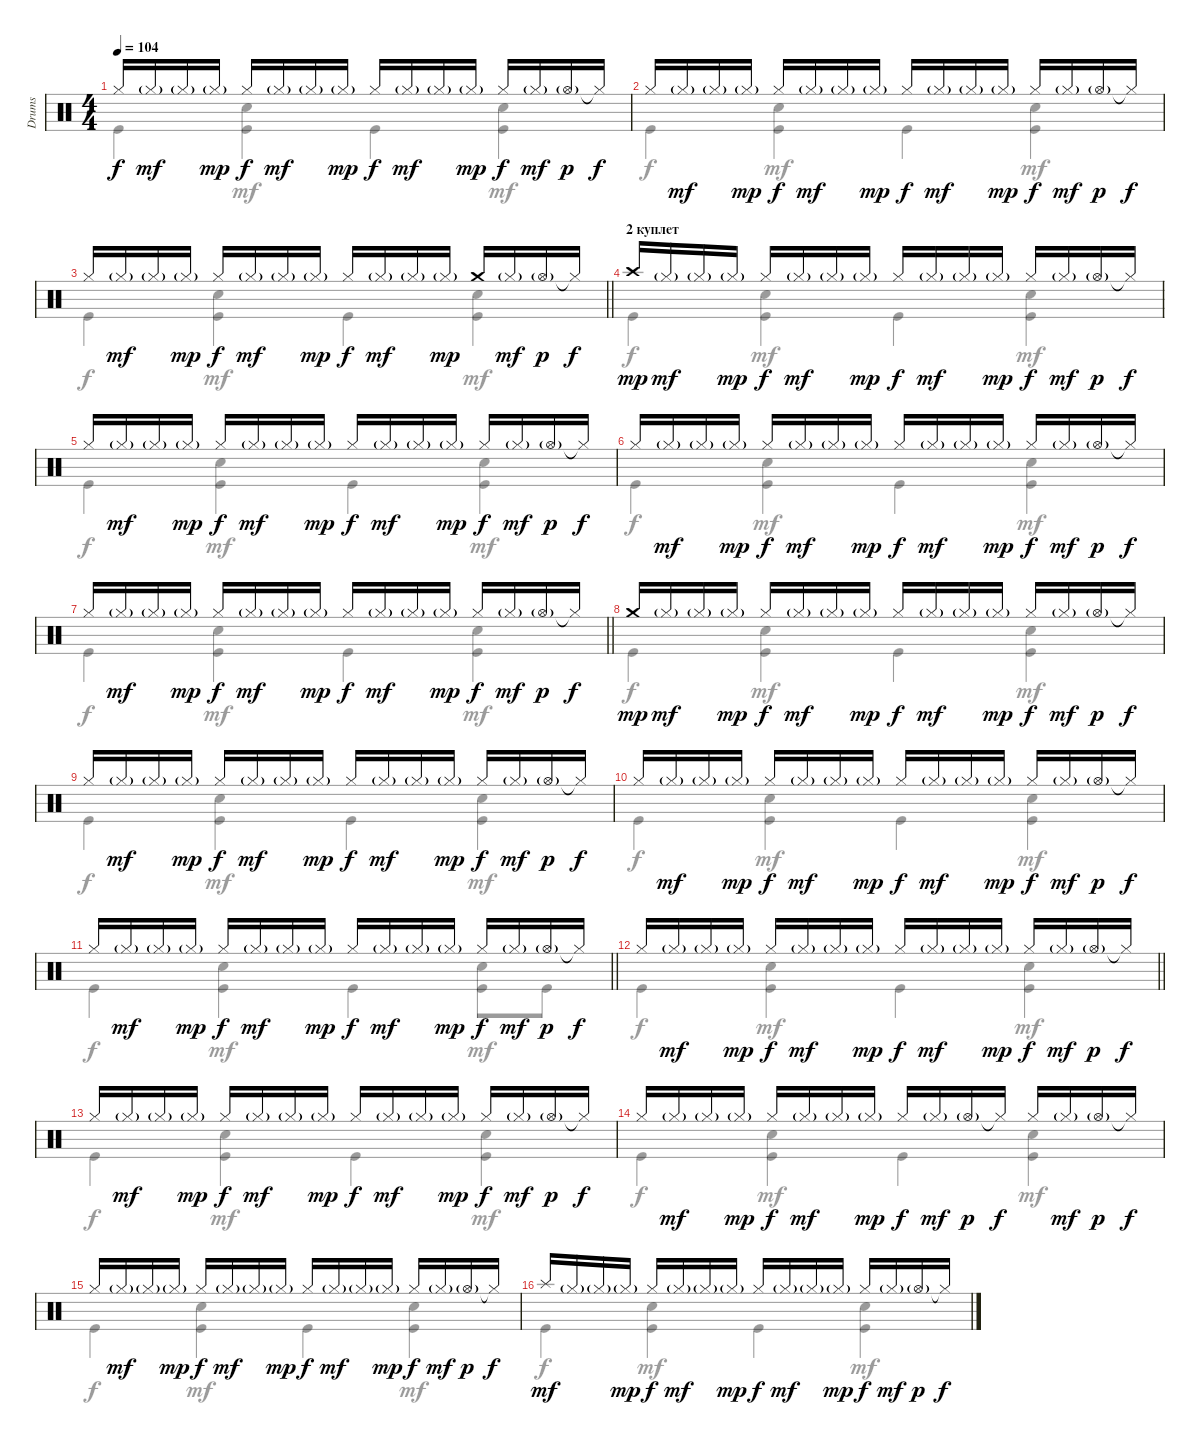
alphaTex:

\track ("Drums" "Drums") {instrument percussion}
\staff {score}
\articulation defaults
\voice
\ts (4 4)
\tempo 104
\clef neutral
\ks c "Hi-Hat (closed)".16{dy f} "Hi-Hat (closed)"{g}.16{dy mf} "Hi-Hat (closed)"{g}.16 "Hi-Hat (closed)"{g}.16{dy mp} "Hi-Hat (closed)".16{dy f} "Hi-Hat (closed)"{g}.16{dy mf} "Hi-Hat (closed)"{g}.16 "Hi-Hat (closed)"{g}.16{dy mp} "Hi-Hat (closed)".16{dy f} "Hi-Hat (closed)"{g}.16{dy mf} "Hi-Hat (closed)"{g}.16 "Hi-Hat (closed)"{g}.16{dy mp} "Hi-Hat (closed)".16{dy f} "Hi-Hat (closed)"{g}.16{dy mf} "Hi-Hat (open)"{g}.16{dy p} "Hi-Hat (closed)"{t}.16{dy f}
|
"Hi-Hat (closed)".16 "Hi-Hat (closed)"{g}.16{dy mf} "Hi-Hat (closed)"{g}.16 "Hi-Hat (closed)"{g}.16{dy mp} "Hi-Hat (closed)".16{dy f} "Hi-Hat (closed)"{g}.16{dy mf} "Hi-Hat (closed)"{g}.16 "Hi-Hat (closed)"{g}.16{dy mp} "Hi-Hat (closed)".16{dy f} "Hi-Hat (closed)"{g}.16{dy mf} "Hi-Hat (closed)"{g}.16 "Hi-Hat (closed)"{g}.16{dy mp} "Hi-Hat (closed)".16{dy f} "Hi-Hat (closed)"{g}.16{dy mf} "Hi-Hat (open)"{g}.16{dy p} "Hi-Hat (closed)"{t}.16{dy f} |
\barLineRight lightlight "Hi-Hat (closed)".16 "Hi-Hat (closed)"{g}.16{dy mf} "Hi-Hat (closed)"{g}.16 "Hi-Hat (closed)"{g}.16{dy mp} "Hi-Hat (closed)".16{dy f} "Hi-Hat (closed)"{g}.16{dy mf} "Hi-Hat (closed)"{g}.16 "Hi-Hat (closed)"{g}.16{dy mp} "Hi-Hat (closed)".16{dy f} "Hi-Hat (closed)"{g}.16{dy mf} "Hi-Hat (closed)"{g}.16 "Hi-Hat (closed)"{g}.16{dy mp} "Crash medium (hit)".16 "Hi-Hat (closed)"{g}.16{dy mf} "Hi-Hat (open)"{g}.16{dy p} "Hi-Hat (closed)"{t}.16{dy f}
|
\section ("" "2 куплет")
"Crash high (hit)".16{dy mp} "Hi-Hat (closed)"{g}.16{dy mf} "Hi-Hat (closed)"{g}.16 "Hi-Hat (closed)"{g}.16{dy mp} "Hi-Hat (closed)".16{dy f} "Hi-Hat (closed)"{g}.16{dy mf} "Hi-Hat (closed)"{g}.16 "Hi-Hat (closed)"{g}.16{dy mp} "Hi-Hat (closed)".16{dy f} "Hi-Hat (closed)"{g}.16{dy mf} "Hi-Hat (closed)"{g}.16 "Hi-Hat (closed)"{g}.16{dy mp} "Hi-Hat (closed)".16{dy f} "Hi-Hat (closed)"{g}.16{dy mf} "Hi-Hat (open)"{g}.16{dy p} "Hi-Hat (closed)"{t}.16{dy f} |
"Hi-Hat (closed)".16 "Hi-Hat (closed)"{g}.16{dy mf} "Hi-Hat (closed)"{g}.16 "Hi-Hat (closed)"{g}.16{dy mp} "Hi-Hat (closed)".16{dy f} "Hi-Hat (closed)"{g}.16{dy mf} "Hi-Hat (closed)"{g}.16 "Hi-Hat (closed)"{g}.16{dy mp} "Hi-Hat (closed)".16{dy f} "Hi-Hat (closed)"{g}.16{dy mf} "Hi-Hat (closed)"{g}.16 "Hi-Hat (closed)"{g}.16{dy mp} "Hi-Hat (closed)".16{dy f} "Hi-Hat (closed)"{g}.16{dy mf} "Hi-Hat (open)"{g}.16{dy p} "Hi-Hat (closed)"{t}.16{dy f} |
"Hi-Hat (closed)".16 "Hi-Hat (closed)"{g}.16{dy mf} "Hi-Hat (closed)"{g}.16 "Hi-Hat (closed)"{g}.16{dy mp} "Hi-Hat (closed)".16{dy f} "Hi-Hat (closed)"{g}.16{dy mf} "Hi-Hat (closed)"{g}.16 "Hi-Hat (closed)"{g}.16{dy mp} "Hi-Hat (closed)".16{dy f} "Hi-Hat (closed)"{g}.16{dy mf} "Hi-Hat (closed)"{g}.16 "Hi-Hat (closed)"{g}.16{dy mp} "Hi-Hat (closed)".16{dy f} "Hi-Hat (closed)"{g}.16{dy mf} "Hi-Hat (open)"{g}.16{dy p} "Hi-Hat (closed)"{t}.16{dy f} |
\barLineRight lightlight "Hi-Hat (closed)".16 "Hi-Hat (closed)"{g}.16{dy mf} "Hi-Hat (closed)"{g}.16 "Hi-Hat (closed)"{g}.16{dy mp} "Hi-Hat (closed)".16{dy f} "Hi-Hat (closed)"{g}.16{dy mf} "Hi-Hat (closed)"{g}.16 "Hi-Hat (closed)"{g}.16{dy mp} "Hi-Hat (closed)".16{dy f} "Hi-Hat (closed)"{g}.16{dy mf} "Hi-Hat (closed)"{g}.16 "Hi-Hat (closed)"{g}.16{dy mp} "Hi-Hat (closed)".16{dy f} "Hi-Hat (closed)"{g}.16{dy mf} "Hi-Hat (open)"{g}.16{dy p} "Hi-Hat (closed)"{t}.16{dy f}
|
"Crash medium (hit)".16{dy mp} "Hi-Hat (closed)"{g}.16{dy mf} "Hi-Hat (closed)"{g}.16 "Hi-Hat (closed)"{g}.16{dy mp} "Hi-Hat (closed)".16{dy f} "Hi-Hat (closed)"{g}.16{dy mf} "Hi-Hat (closed)"{g}.16 "Hi-Hat (closed)"{g}.16{dy mp} "Hi-Hat (closed)".16{dy f} "Hi-Hat (closed)"{g}.16{dy mf} "Hi-Hat (closed)"{g}.16 "Hi-Hat (closed)"{g}.16{dy mp} "Hi-Hat (closed)".16{dy f} "Hi-Hat (closed)"{g}.16{dy mf} "Hi-Hat (open)"{g}.16{dy p} "Hi-Hat (closed)"{t}.16{dy f} |
"Hi-Hat (closed)".16 "Hi-Hat (closed)"{g}.16{dy mf} "Hi-Hat (closed)"{g}.16 "Hi-Hat (closed)"{g}.16{dy mp} "Hi-Hat (closed)".16{dy f} "Hi-Hat (closed)"{g}.16{dy mf} "Hi-Hat (closed)"{g}.16 "Hi-Hat (closed)"{g}.16{dy mp} "Hi-Hat (closed)".16{dy f} "Hi-Hat (closed)"{g}.16{dy mf} "Hi-Hat (closed)"{g}.16 "Hi-Hat (closed)"{g}.16{dy mp} "Hi-Hat (closed)".16{dy f} "Hi-Hat (closed)"{g}.16{dy mf} "Hi-Hat (open)"{g}.16{dy p} "Hi-Hat (closed)"{t}.16{dy f} |
"Hi-Hat (closed)".16 "Hi-Hat (closed)"{g}.16{dy mf} "Hi-Hat (closed)"{g}.16 "Hi-Hat (closed)"{g}.16{dy mp} "Hi-Hat (closed)".16{dy f} "Hi-Hat (closed)"{g}.16{dy mf} "Hi-Hat (closed)"{g}.16 "Hi-Hat (closed)"{g}.16{dy mp} "Hi-Hat (closed)".16{dy f} "Hi-Hat (closed)"{g}.16{dy mf} "Hi-Hat (closed)"{g}.16 "Hi-Hat (closed)"{g}.16{dy mp} "Hi-Hat (closed)".16{dy f} "Hi-Hat (closed)"{g}.16{dy mf} "Hi-Hat (open)"{g}.16{dy p} "Hi-Hat (closed)"{t}.16{dy f} |
\barLineRight lightlight "Hi-Hat (closed)".16 "Hi-Hat (closed)"{g}.16{dy mf} "Hi-Hat (closed)"{g}.16 "Hi-Hat (closed)"{g}.16{dy mp} "Hi-Hat (closed)".16{dy f} "Hi-Hat (closed)"{g}.16{dy mf} "Hi-Hat (closed)"{g}.16 "Hi-Hat (closed)"{g}.16{dy mp} "Hi-Hat (closed)".16{dy f} "Hi-Hat (closed)"{g}.16{dy mf} "Hi-Hat (closed)"{g}.16 "Hi-Hat (closed)"{g}.16{dy mp} "Hi-Hat (closed)".16{dy f} "Hi-Hat (closed)"{g}.16{dy mf} "Hi-Hat (open)"{g}.16{dy p} "Hi-Hat (closed)"{t}.16{dy f}
|
\barLineRight lightlight "Hi-Hat (closed)".16 "Hi-Hat (closed)"{g}.16{dy mf} "Hi-Hat (closed)"{g}.16 "Hi-Hat (closed)"{g}.16{dy mp} "Hi-Hat (closed)".16{dy f} "Hi-Hat (closed)"{g}.16{dy mf} "Hi-Hat (closed)"{g}.16 "Hi-Hat (closed)"{g}.16{dy mp} "Hi-Hat (closed)".16{dy f} "Hi-Hat (closed)"{g}.16{dy mf} "Hi-Hat (closed)"{g}.16 "Hi-Hat (closed)"{g}.16{dy mp} "Hi-Hat (closed)".16{dy f} "Hi-Hat (closed)"{g}.16{dy mf} "Hi-Hat (open)"{g}.16{dy p} "Hi-Hat (closed)"{t}.16{dy f}
|
"Hi-Hat (closed)".16 "Hi-Hat (closed)"{g}.16{dy mf} "Hi-Hat (closed)"{g}.16 "Hi-Hat (closed)"{g}.16{dy mp} "Hi-Hat (closed)".16{dy f} "Hi-Hat (closed)"{g}.16{dy mf} "Hi-Hat (closed)"{g}.16 "Hi-Hat (closed)"{g}.16{dy mp} "Hi-Hat (closed)".16{dy f} "Hi-Hat (closed)"{g}.16{dy mf} "Hi-Hat (closed)"{g}.16 "Hi-Hat (closed)"{g}.16{dy mp} "Hi-Hat (closed)".16{dy f} "Hi-Hat (closed)"{g}.16{dy mf} "Hi-Hat (open)"{g}.16{dy p} "Hi-Hat (closed)"{t}.16{dy f} |
"Hi-Hat (closed)".16 "Hi-Hat (closed)"{g}.16{dy mf} "Hi-Hat (closed)"{g}.16 "Hi-Hat (closed)"{g}.16{dy mp} "Hi-Hat (closed)".16{dy f} "Hi-Hat (closed)"{g}.16{dy mf} "Hi-Hat (closed)"{g}.16 "Hi-Hat (closed)"{g}.16{dy mp} "Hi-Hat (closed)".16{dy f} "Hi-Hat (closed)"{g}.16{dy mf} "Hi-Hat (open)"{g}.16{dy p} "Hi-Hat (closed)"{t}.16{dy f} "Hi-Hat (closed)".16 "Hi-Hat (closed)"{g}.16{dy mf} "Hi-Hat (open)"{g}.16{dy p} "Hi-Hat (closed)"{t}.16{dy f} |
"Hi-Hat (closed)".16 "Hi-Hat (closed)"{g}.16{dy mf} "Hi-Hat (closed)"{g}.16 "Hi-Hat (closed)"{g}.16{dy mp} "Hi-Hat (closed)".16{dy f} "Hi-Hat (closed)"{g}.16{dy mf} "Hi-Hat (closed)"{g}.16 "Hi-Hat (closed)"{g}.16{dy mp} "Hi-Hat (closed)".16{dy f} "Hi-Hat (closed)"{g}.16{dy mf} "Hi-Hat (closed)"{g}.16 "Hi-Hat (closed)"{g}.16{dy mp} "Hi-Hat (closed)".16{dy f} "Hi-Hat (closed)"{g}.16{dy mf} "Hi-Hat (open)"{g}.16{dy p} "Hi-Hat (closed)"{t}.16{dy f} |
"Splash (hit)".16{dy mf} "Hi-Hat (closed)"{g}.16 "Hi-Hat (closed)"{g}.16 "Hi-Hat (closed)"{g}.16{dy mp} "Hi-Hat (closed)".16{dy f} "Hi-Hat (closed)"{g}.16{dy mf} "Hi-Hat (closed)"{g}.16 "Hi-Hat (closed)"{g}.16{dy mp} "Hi-Hat (closed)".16{dy f} "Hi-Hat (closed)"{g}.16{dy mf} "Hi-Hat (closed)"{g}.16 "Hi-Hat (closed)"{g}.16{dy mp} "Hi-Hat (closed)".16{dy f} "Hi-Hat (closed)"{g}.16{dy mf} "Hi-Hat (open)"{g}.16{dy p} "Hi-Hat (closed)"{t}.16{dy f}
\voice
\clef neutral
\ottava regular
\simile none
\ks c "Kick (hit)".4{dy f}
("Snare (hit) 2" "Kick (hit)").4{dy mf} "Kick (hit)".4{dy f} ("Snare (hit) 2" "Kick (hit)").4{dy mf} |
"Kick (hit)".4{dy f} ("Snare (hit) 2" "Kick (hit)").4{dy mf} "Kick (hit)".4{dy f} ("Snare (hit) 2" "Kick (hit)").4{dy mf} |
\barLineRight lightlight "Kick (hit)".4{dy f}
("Snare (hit) 2" "Kick (hit)").4{dy mf} "Kick (hit)".4{dy f} ("Snare (hit) 2" "Kick (hit)").4{dy mf} |
"Kick (hit)".4{dy f} ("Snare (hit) 2" "Kick (hit)").4{dy mf} "Kick (hit)".4{dy f} ("Snare (hit) 2" "Kick (hit)").4{dy mf} |
"Kick (hit)".4{dy f} ("Snare (hit) 2" "Kick (hit)").4{dy mf} "Kick (hit)".4{dy f} ("Snare (hit) 2" "Kick (hit)").4{dy mf} |
"Kick (hit)".4{dy f} ("Snare (hit) 2" "Kick (hit)").4{dy mf} "Kick (hit)".4{dy f} ("Snare (hit) 2" "Kick (hit)").4{dy mf} |
\barLineRight lightlight "Kick (hit)".4{dy f}
("Snare (hit) 2" "Kick (hit)").4{dy mf} "Kick (hit)".4{dy f} ("Snare (hit) 2" "Kick (hit)").4{dy mf} |
"Kick (hit)".4{dy f} ("Snare (hit) 2" "Kick (hit)").4{dy mf} "Kick (hit)".4{dy f} ("Snare (hit) 2" "Kick (hit)").4{dy mf} |
"Kick (hit)".4{dy f} ("Snare (hit) 2" "Kick (hit)").4{dy mf} "Kick (hit)".4{dy f} ("Snare (hit) 2" "Kick (hit)").4{dy mf} |
"Kick (hit)".4{dy f} ("Snare (hit) 2" "Kick (hit)").4{dy mf} "Kick (hit)".4{dy f} ("Snare (hit) 2" "Kick (hit)").4{dy mf} |
\barLineRight lightlight "Kick (hit)".4{dy f}
("Snare (hit) 2" "Kick (hit)").4{dy mf} "Kick (hit)".4{dy f} ("Snare (hit) 2" "Kick (hit)").8{dy mf} "Kick (hit)".8 |
\barLineRight lightlight "Kick (hit)".4{dy f}
("Snare (hit) 2" "Kick (hit)").4{dy mf} "Kick (hit)".4{dy f} ("Snare (hit) 2" "Kick (hit)").4{dy mf} |
"Kick (hit)".4{dy f} ("Snare (hit) 2" "Kick (hit)").4{dy mf} "Kick (hit)".4{dy f} ("Snare (hit) 2" "Kick (hit)").4{dy mf} |
"Kick (hit)".4{dy f} ("Snare (hit) 2" "Kick (hit)").4{dy mf} "Kick (hit)".4{dy f} ("Snare (hit) 2" "Kick (hit)").4{dy mf} |
"Kick (hit)".4{dy f} ("Snare (hit) 2" "Kick (hit)").4{dy mf} "Kick (hit)".4{dy f} ("Snare (hit) 2" "Kick (hit)").4{dy mf} |
"Kick (hit)".4{dy f} ("Snare (hit) 2" "Kick (hit)").4{dy mf} "Kick (hit)".4{dy f} ("Snare (hit) 2" "Kick (hit)").4{dy mf}
